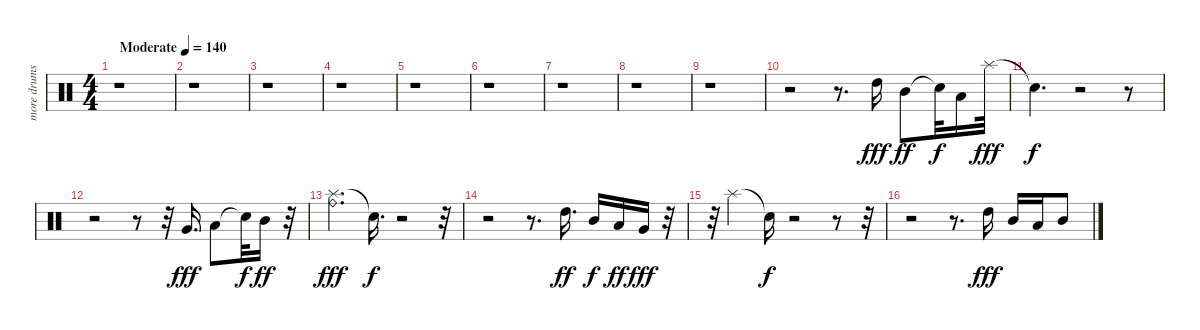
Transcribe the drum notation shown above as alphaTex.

\track ("more drums" "more drums") {instrument percussion}
\staff {score}
\articulation defaults
\ts (4 4)
\tempo (140 "Moderate")
\clef neutral
\ks c
r.1{dy fff} |
r.1 |
r.1 |
r.1 |
r.1 |
r.1 |
r.1 |
r.1 |
r.1 |
r.2 r.8{d} "High Tom (hit)".16 "Mid Tom (hit)".8{dy ff} "Snare (hit)"{t}.32{dy f} "Low Tom (hit)".16 "Splash (hit)".32{dy fff} |
"Snare (hit)"{t}.4{d dy f} r.2 r.8 |
r.2 r.8 r.32 "Very Low Tom (hit)".16{d dy fff} "Low Tom (hit)".8 "Snare (hit)"{t}.32{dy f} "Mid Tom (hit)".16{dy ff} r.32 |
("Splash (hit)" "Ride (bell)").4{d dy fff} "Snare (hit)"{t}.16{d dy f} r.2 r.32 |
r.2 r.8{d} "High Tom (hit)".16{d dy ff} "Mid Tom (hit)".16{dy f} "Low Tom (hit)".16{dy ff} "Very Low Tom (hit)".16{dy fff} r.32 |
r.32 "Splash (hit)".4 "Snare (hit)"{t}.16{dy f} r.2 r.8 r.32 |
r.2 r.8{d} "High Tom (hit)".16{dy fff} "Mid Tom (hit)".16 "Low Tom (hit)".16 "Mid Tom (hit)".8
